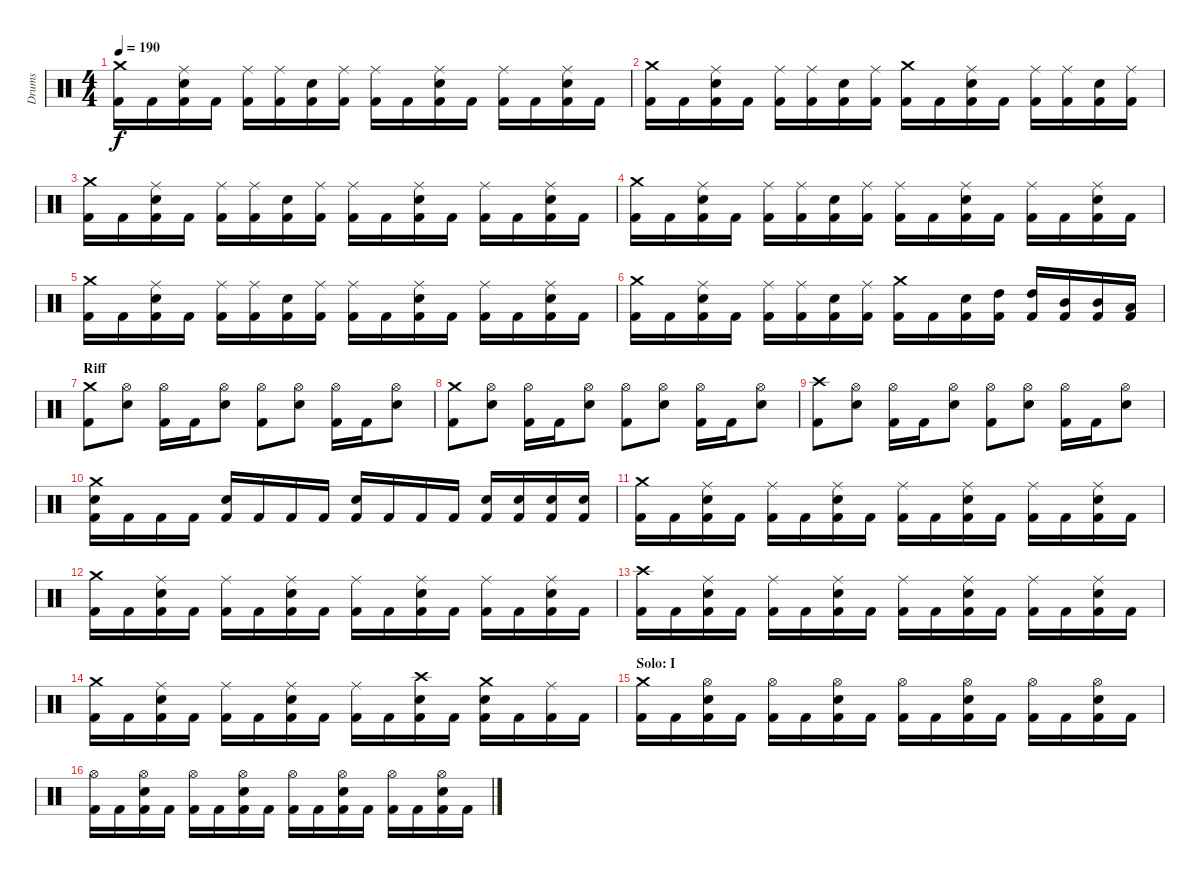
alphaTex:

\track ("Drums" "Drums") {instrument percussion}
\staff {score}
\articulation defaults
\ts (4 4)
\tempo 190
\clef neutral
\ks c
("Crash medium (hit)" "Kick (hit) 2").16{dy f} "Kick (hit) 2".16 ("Ride (middle)" "Snare (hit) 2" "Kick (hit) 2").16 "Kick (hit) 2".16 ("Ride (middle)" "Kick (hit) 2").16 ("Ride (middle)" "Kick (hit) 2").16 ("Snare (hit) 2" "Kick (hit) 2").16 ("Ride (middle)" "Kick (hit) 2").16 ("Ride (middle)" "Kick (hit) 2").16 "Kick (hit) 2".16 ("Ride (middle)" "Snare (hit) 2" "Kick (hit) 2").16 "Kick (hit) 2".16 ("Ride (middle)" "Kick (hit) 2").16 "Kick (hit) 2".16 ("Ride (middle)" "Snare (hit) 2" "Kick (hit) 2").16 "Kick (hit) 2".16 |
("Crash medium (hit)" "Kick (hit) 2").16 "Kick (hit) 2".16 ("Ride (middle)" "Snare (hit) 2" "Kick (hit) 2").16 "Kick (hit) 2".16 ("Ride (middle)" "Kick (hit) 2").16 ("Ride (middle)" "Kick (hit) 2").16 ("Snare (hit) 2" "Kick (hit) 2").16 ("Ride (middle)" "Kick (hit) 2").16 ("Crash medium (hit)" "Kick (hit) 2").16 "Kick (hit) 2".16 ("Ride (middle)" "Snare (hit) 2" "Kick (hit) 2").16 "Kick (hit) 2".16 ("Ride (middle)" "Kick (hit) 2").16 ("Ride (middle)" "Kick (hit) 2").16 ("Snare (hit) 2" "Kick (hit) 2").16 ("Ride (middle)" "Kick (hit) 2").16 |
("Crash medium (hit)" "Kick (hit) 2").16 "Kick (hit) 2".16 ("Ride (middle)" "Snare (hit) 2" "Kick (hit) 2").16 "Kick (hit) 2".16 ("Ride (middle)" "Kick (hit) 2").16 ("Ride (middle)" "Kick (hit) 2").16 ("Snare (hit) 2" "Kick (hit) 2").16 ("Ride (middle)" "Kick (hit) 2").16 ("Ride (middle)" "Kick (hit) 2").16 "Kick (hit) 2".16 ("Ride (middle)" "Snare (hit) 2" "Kick (hit) 2").16 "Kick (hit) 2".16 ("Ride (middle)" "Kick (hit) 2").16 "Kick (hit) 2".16 ("Ride (middle)" "Snare (hit) 2" "Kick (hit) 2").16 "Kick (hit) 2".16 |
("Crash medium (hit)" "Kick (hit) 2").16 "Kick (hit) 2".16 ("Ride (middle)" "Snare (hit) 2" "Kick (hit) 2").16 "Kick (hit) 2".16 ("Ride (middle)" "Kick (hit) 2").16 ("Ride (middle)" "Kick (hit) 2").16 ("Snare (hit) 2" "Kick (hit) 2").16 ("Ride (middle)" "Kick (hit) 2").16 ("Ride (middle)" "Kick (hit) 2").16 "Kick (hit) 2".16 ("Ride (middle)" "Snare (hit) 2" "Kick (hit) 2").16 "Kick (hit) 2".16 ("Ride (middle)" "Kick (hit) 2").16 "Kick (hit) 2".16 ("Ride (middle)" "Snare (hit) 2" "Kick (hit) 2").16 "Kick (hit) 2".16 |
("Crash medium (hit)" "Kick (hit) 2").16 "Kick (hit) 2".16 ("Ride (middle)" "Snare (hit) 2" "Kick (hit) 2").16 "Kick (hit) 2".16 ("Ride (middle)" "Kick (hit) 2").16 ("Ride (middle)" "Kick (hit) 2").16 ("Snare (hit) 2" "Kick (hit) 2").16 ("Ride (middle)" "Kick (hit) 2").16 ("Ride (middle)" "Kick (hit) 2").16 "Kick (hit) 2".16 ("Ride (middle)" "Snare (hit) 2" "Kick (hit) 2").16 "Kick (hit) 2".16 ("Ride (middle)" "Kick (hit) 2").16 "Kick (hit) 2".16 ("Ride (middle)" "Snare (hit) 2" "Kick (hit) 2").16 "Kick (hit) 2".16 |
("Crash medium (hit)" "Kick (hit) 2").16 "Kick (hit) 2".16 ("Ride (middle)" "Snare (hit) 2" "Kick (hit) 2").16 "Kick (hit) 2".16 ("Ride (middle)" "Kick (hit) 2").16 ("Ride (middle)" "Kick (hit) 2").16 ("Snare (hit) 2" "Kick (hit) 2").16 ("Ride (middle)" "Kick (hit) 2").16 ("Crash medium (hit)" "Kick (hit) 2").16 "Kick (hit) 2".16 ("Snare (hit) 2" "Kick (hit) 2").16 ("High Tom (hit)" "Kick (hit) 2").16 ("High Tom (hit)" "Kick (hit) 2").16 ("Mid Tom (hit)" "Kick (hit) 2").16 ("Mid Tom (hit)" "Kick (hit) 2").16 ("Low Tom (hit)" "Kick (hit) 2").16 |
\section ("" "Riff")
("Crash medium (hit)" "Kick (hit) 2").8 ("Hi-Hat (open)" "Snare (hit) 2").8 ("Hi-Hat (open)" "Kick (hit) 2").16 "Kick (hit) 2".16 ("Hi-Hat (open)" "Snare (hit) 2").8 ("Hi-Hat (open)" "Kick (hit) 2").8 ("Hi-Hat (open)" "Snare (hit) 2").8 ("Hi-Hat (open)" "Kick (hit) 2").16 "Kick (hit) 2".16 ("Hi-Hat (open)" "Snare (hit) 2").8 |
("Crash medium (hit)" "Kick (hit) 2").8 ("Hi-Hat (open)" "Snare (hit) 2").8 ("Hi-Hat (open)" "Kick (hit) 2").16 "Kick (hit) 2".16 ("Hi-Hat (open)" "Snare (hit) 2").8 ("Hi-Hat (open)" "Kick (hit) 2").8 ("Hi-Hat (open)" "Snare (hit) 2").8 ("Hi-Hat (open)" "Kick (hit) 2").16 "Kick (hit) 2".16 ("Hi-Hat (open)" "Snare (hit) 2").8 |
("Crash high (hit)" "Kick (hit) 2").8 ("Hi-Hat (open)" "Snare (hit) 2").8 ("Hi-Hat (open)" "Kick (hit) 2").16 "Kick (hit) 2".16 ("Hi-Hat (open)" "Snare (hit) 2").8 ("Hi-Hat (open)" "Kick (hit) 2").8 ("Hi-Hat (open)" "Snare (hit) 2").8 ("Hi-Hat (open)" "Kick (hit) 2").16 "Kick (hit) 2".16 ("Hi-Hat (open)" "Snare (hit) 2").8 |
("Crash medium (hit)" "Snare (hit) 2" "Kick (hit) 2").16 "Kick (hit) 2".16 "Kick (hit) 2".16 "Kick (hit) 2".16 ("Snare (hit) 2" "Kick (hit) 2").16 "Kick (hit) 2".16 "Kick (hit) 2".16 "Kick (hit) 2".16 ("Snare (hit) 2" "Kick (hit) 2").16 "Kick (hit) 2".16 "Kick (hit) 2".16 "Kick (hit) 2".16 ("Snare (hit) 2" "Kick (hit) 2").16 ("Snare (hit) 2" "Kick (hit) 2").16 ("Snare (hit) 2" "Kick (hit) 2").16 ("Snare (hit) 2" "Kick (hit) 2").16 |
("Crash medium (hit)" "Kick (hit) 2").16 "Kick (hit) 2".16 ("Ride (middle)" "Snare (hit) 2" "Kick (hit) 2").16 "Kick (hit) 2".16 ("Ride (middle)" "Kick (hit) 2").16 "Kick (hit) 2".16 ("Ride (middle)" "Snare (hit) 2" "Kick (hit) 2").16 "Kick (hit) 2".16 ("Ride (middle)" "Kick (hit) 2").16 "Kick (hit) 2".16 ("Ride (middle)" "Snare (hit) 2" "Kick (hit) 2").16 "Kick (hit) 2".16 ("Ride (middle)" "Kick (hit) 2").16 "Kick (hit) 2".16 ("Ride (middle)" "Snare (hit) 2" "Kick (hit) 2").16 "Kick (hit) 2".16 |
("Crash medium (hit)" "Kick (hit) 2").16 "Kick (hit) 2".16 ("Ride (middle)" "Snare (hit) 2" "Kick (hit) 2").16 "Kick (hit) 2".16 ("Ride (middle)" "Kick (hit) 2").16 "Kick (hit) 2".16 ("Ride (middle)" "Snare (hit) 2" "Kick (hit) 2").16 "Kick (hit) 2".16 ("Ride (middle)" "Kick (hit) 2").16 "Kick (hit) 2".16 ("Ride (middle)" "Snare (hit) 2" "Kick (hit) 2").16 "Kick (hit) 2".16 ("Ride (middle)" "Kick (hit) 2").16 "Kick (hit) 2".16 ("Ride (middle)" "Snare (hit) 2" "Kick (hit) 2").16 "Kick (hit) 2".16 |
("Crash high (hit)" "Kick (hit) 2").16 "Kick (hit) 2".16 ("Ride (middle)" "Snare (hit) 2" "Kick (hit) 2").16 "Kick (hit) 2".16 ("Ride (middle)" "Kick (hit) 2").16 "Kick (hit) 2".16 ("Ride (middle)" "Snare (hit) 2" "Kick (hit) 2").16 "Kick (hit) 2".16 ("Ride (middle)" "Kick (hit) 2").16 "Kick (hit) 2".16 ("Ride (middle)" "Snare (hit) 2" "Kick (hit) 2").16 "Kick (hit) 2".16 ("Ride (middle)" "Kick (hit) 2").16 "Kick (hit) 2".16 ("Ride (middle)" "Snare (hit) 2" "Kick (hit) 2").16 "Kick (hit) 2".16 |
("Crash medium (hit)" "Kick (hit) 2").16 "Kick (hit) 2".16 ("Ride (middle)" "Snare (hit) 2" "Kick (hit) 2").16 "Kick (hit) 2".16 ("Ride (middle)" "Kick (hit) 2").16 "Kick (hit) 2".16 ("Ride (middle)" "Snare (hit) 2" "Kick (hit) 2").16 "Kick (hit) 2".16 ("Ride (middle)" "Kick (hit) 2").16 "Kick (hit) 2".16 ("Crash high (hit)" "Snare (hit) 2" "Kick (hit) 2").16 "Kick (hit) 2".16 ("Crash medium (hit)" "Snare (hit) 2" "Kick (hit) 2").16 "Kick (hit) 2".16 ("Ride (middle)" "Kick (hit) 2").16 "Kick (hit) 2".16 |
\section ("" "Solo: I")
("Crash medium (hit)" "Kick (hit) 2").16 "Kick (hit) 2".16 ("Hi-Hat (open)" "Snare (hit) 2" "Kick (hit) 2").16 "Kick (hit) 2".16 ("Hi-Hat (open)" "Kick (hit) 2").16 "Kick (hit) 2".16 ("Hi-Hat (open)" "Snare (hit) 2" "Kick (hit) 2").16 "Kick (hit) 2".16 ("Hi-Hat (open)" "Kick (hit) 2").16 "Kick (hit) 2".16 ("Hi-Hat (open)" "Snare (hit) 2" "Kick (hit) 2").16 "Kick (hit) 2".16 ("Hi-Hat (open)" "Kick (hit) 2").16 "Kick (hit) 2".16 ("Hi-Hat (open)" "Snare (hit) 2" "Kick (hit) 2").16 "Kick (hit) 2".16 |
("Hi-Hat (open)" "Kick (hit) 2").16 "Kick (hit) 2".16 ("Hi-Hat (open)" "Snare (hit) 2" "Kick (hit) 2").16 "Kick (hit) 2".16 ("Hi-Hat (open)" "Kick (hit) 2").16 "Kick (hit) 2".16 ("Hi-Hat (open)" "Snare (hit) 2" "Kick (hit) 2").16 "Kick (hit) 2".16 ("Hi-Hat (open)" "Kick (hit) 2").16 "Kick (hit) 2".16 ("Hi-Hat (open)" "Snare (hit) 2" "Kick (hit) 2").16 "Kick (hit) 2".16 ("Hi-Hat (open)" "Kick (hit) 2").16 "Kick (hit) 2".16 ("Hi-Hat (open)" "Snare (hit) 2" "Kick (hit) 2").16 "Kick (hit) 2".16
